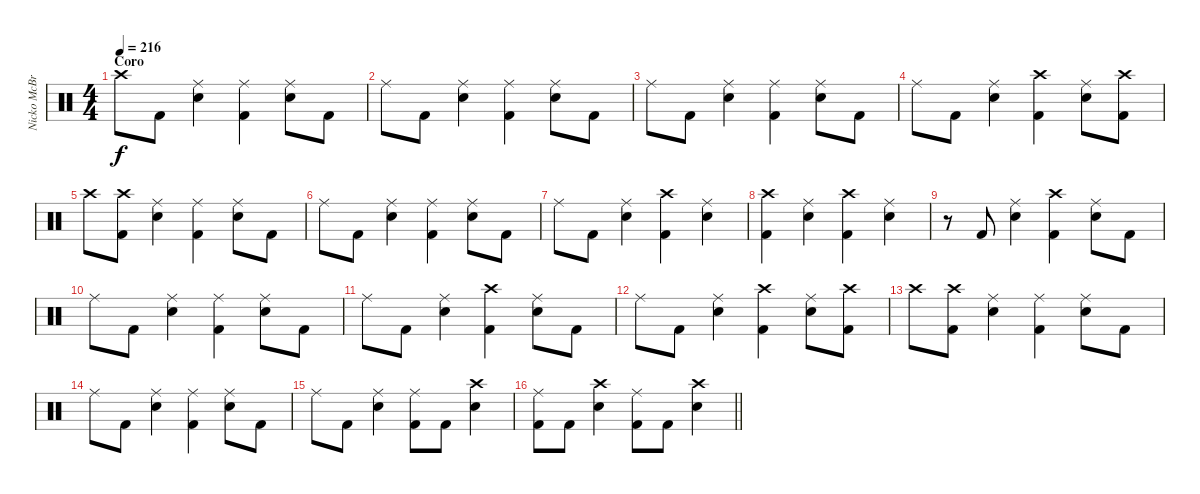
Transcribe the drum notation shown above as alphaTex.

\track ("Nicko McBrain" "Nicko McBr") {instrument percussion}
\staff {score}
\articulation defaults
\ts (4 4)
\section ("" "Coro")
\tempo 216
\clef neutral
\ks c "Crash high (hit)".8{dy f} "Kick (hit) 2".8
("Ride (middle)" "Snare (hit) 2").4 ("Ride (middle)" "Kick (hit) 2").4 ("Ride (middle)" "Snare (hit) 2").8 "Kick (hit) 2".8 |
"Ride (middle)".8 "Kick (hit) 2".8 ("Ride (middle)" "Snare (hit) 2").4 ("Ride (middle)" "Kick (hit) 2").4 ("Ride (middle)" "Snare (hit) 2").8 "Kick (hit) 2".8 |
"Ride (middle)".8 "Kick (hit) 2".8 ("Ride (middle)" "Snare (hit) 2").4 ("Ride (middle)" "Kick (hit) 2").4 ("Ride (middle)" "Snare (hit) 2").8 "Kick (hit) 2".8 |
"Ride (middle)".8 "Kick (hit) 2".8 ("Ride (middle)" "Snare (hit) 2").4 ("Crash high (hit)" "Kick (hit) 2").4 ("Ride (middle)" "Snare (hit) 2").8 ("Crash high (hit)" "Kick (hit) 2").8 |
"Crash high (hit)".8 ("Crash high (hit)" "Kick (hit) 2").8 ("Ride (middle)" "Snare (hit) 2").4 ("Ride (middle)" "Kick (hit) 2").4 ("Ride (middle)" "Snare (hit) 2").8 "Kick (hit) 2".8 |
"Ride (middle)".8 "Kick (hit) 2".8 ("Ride (middle)" "Snare (hit) 2").4 ("Ride (middle)" "Kick (hit) 2").4 ("Ride (middle)" "Snare (hit) 2").8 "Kick (hit) 2".8 |
"Ride (middle)".8 "Kick (hit) 2".8 ("Ride (middle)" "Snare (hit) 2").4 ("Crash high (hit)" "Kick (hit) 2").4 ("Ride (middle)" "Snare (hit) 2").4 |
("Crash high (hit)" "Kick (hit) 2").4 ("Ride (middle)" "Snare (hit) 2").4 ("Crash high (hit)" "Kick (hit) 2").4 ("Ride (middle)" "Snare (hit) 2").4 |
r.8 "Kick (hit) 2".8 ("Ride (middle)" "Snare (hit) 2").4 ("Crash high (hit)" "Kick (hit) 2").4 ("Ride (middle)" "Snare (hit) 2").8 "Kick (hit) 2".8 |
"Ride (middle)".8 "Kick (hit) 2".8 ("Ride (middle)" "Snare (hit) 2").4 ("Ride (middle)" "Kick (hit) 2").4 ("Ride (middle)" "Snare (hit) 2").8 "Kick (hit) 2".8 |
"Ride (middle)".8 "Kick (hit) 2".8 ("Ride (middle)" "Snare (hit) 2").4 ("Crash high (hit)" "Kick (hit) 2").4 ("Ride (middle)" "Snare (hit) 2").8 "Kick (hit) 2".8 |
"Ride (middle)".8 "Kick (hit) 2".8 ("Ride (middle)" "Snare (hit) 2").4 ("Crash high (hit)" "Kick (hit) 2").4 ("Ride (middle)" "Snare (hit) 2").8 ("Crash high (hit)" "Kick (hit) 2").8 |
"Crash high (hit)".8 ("Crash high (hit)" "Kick (hit) 2").8 ("Ride (middle)" "Snare (hit) 2").4 ("Ride (middle)" "Kick (hit) 2").4 ("Ride (middle)" "Snare (hit) 2").8 "Kick (hit) 2".8 |
"Ride (middle)".8 "Kick (hit) 2".8 ("Ride (middle)" "Snare (hit) 2").4 ("Ride (middle)" "Kick (hit) 2").4 ("Ride (middle)" "Snare (hit) 2").8 "Kick (hit) 2".8 |
"Ride (middle)".8 "Kick (hit) 2".8 ("Ride (middle)" "Snare (hit) 2").4 ("Ride (middle)" "Kick (hit) 2").8 "Kick (hit) 2".8 ("Crash high (hit)" "Snare (hit) 2").4 |
\barLineRight lightlight
("Ride (middle)" "Kick (hit) 2").8 "Kick (hit) 2".8 ("Crash high (hit)" "Snare (hit) 2").4 ("Ride (middle)" "Kick (hit) 2").8 "Kick (hit) 2".8 ("Crash high (hit)" "Snare (hit) 2").4
